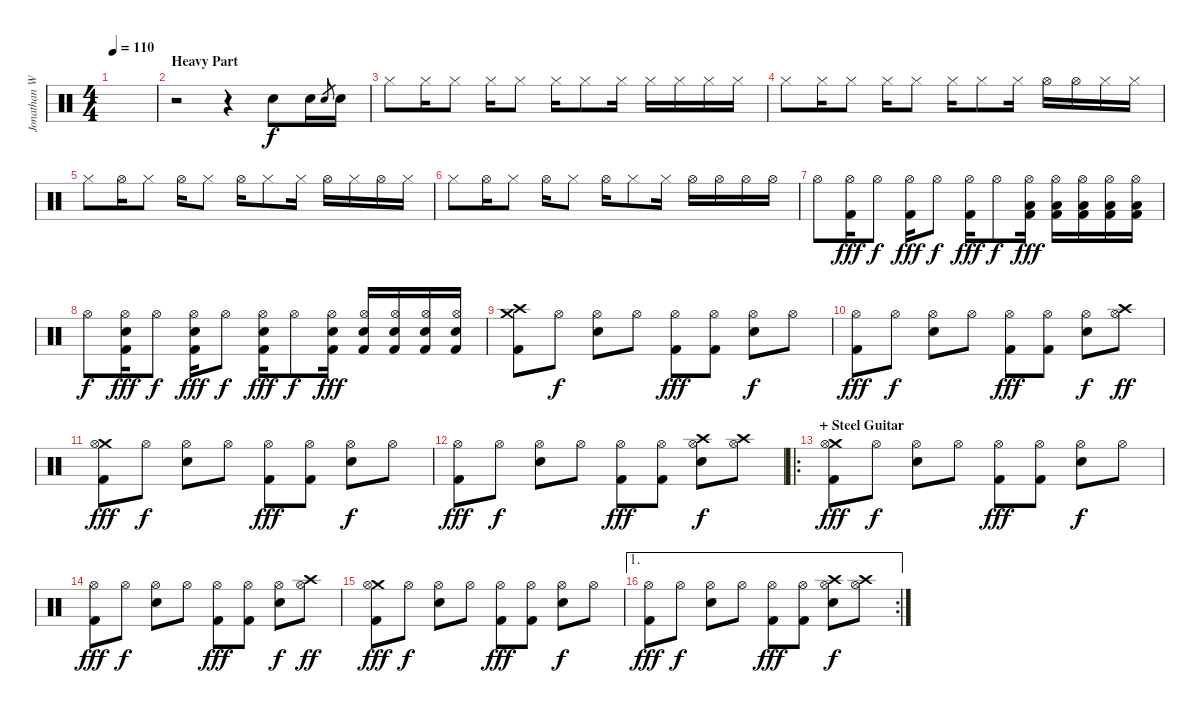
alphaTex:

\track ("Jonathan Wenzel" "Jonathan W") {instrument percussion}
\staff {score}
\articulation defaults
\ts (4 4)
\tempo 110
\clef neutral
\ks c
|
\section ("" "Heavy Part")
r.2 r.4 "Electric Snare (hit)".8 "Electric Snare (hit)".16 "Electric Snare (hit)".8{gr} "Electric Snare (hit)".16 |
"Hi-Hat (closed)".8 "Hi-Hat (closed)".16 "Hi-Hat (closed)".8 "Hi-Hat (closed)".16 "Hi-Hat (closed)".8 "Hi-Hat (closed)".16 "Hi-Hat (closed)".8 "Hi-Hat (closed)".16 "Hi-Hat (closed)".16 "Hi-Hat (closed)".16 "Hi-Hat (closed)".16 "Hi-Hat (closed)".16 |
"Hi-Hat (closed)".8 "Hi-Hat (closed)".16 "Hi-Hat (closed)".8 "Hi-Hat (closed)".16 "Hi-Hat (closed)".8 "Hi-Hat (closed)".16 "Hi-Hat (closed)".8 "Hi-Hat (closed)".16 "Hi-Hat (open)".16 "Hi-Hat (open)".16 "Hi-Hat (closed)".16 "Hi-Hat (closed)".16 |
"Hi-Hat (closed)".8 "Hi-Hat (open)".16 "Hi-Hat (closed)".8 "Hi-Hat (open)".16 "Hi-Hat (closed)".8 "Hi-Hat (open)".16 "Hi-Hat (closed)".8 "Hi-Hat (closed)".16 "Hi-Hat (open)".16 "Hi-Hat (closed)".16 "Hi-Hat (open)".16 "Hi-Hat (closed)".16 |
"Hi-Hat (closed)".8 "Hi-Hat (open)".16 "Hi-Hat (closed)".8 "Hi-Hat (open)".16 "Hi-Hat (closed)".8 "Hi-Hat (open)".16 "Hi-Hat (closed)".8 "Hi-Hat (closed)".16 "Hi-Hat (open)".16 "Hi-Hat (open)".16 "Hi-Hat (open)".16 "Hi-Hat (open)".16 |
"Hi-Hat (open)".8 ("Hi-Hat (open)" "Kick (hit) 2").16{dy fff} "Hi-Hat (open)".8{dy f} ("Hi-Hat (open)" "Kick (hit) 2").16{dy fff} "Hi-Hat (open)".8{dy f} ("Hi-Hat (open)" "Kick (hit) 2").16{dy fff} "Hi-Hat (open)".8{dy f} ("Hi-Hat (open)" "Low Floor Tom (hit)" "Kick (hit) 2").16{dy fff} ("Hi-Hat (open)" "Low Floor Tom (hit)" "Kick (hit) 2").16 ("Hi-Hat (open)" "Low Floor Tom (hit)" "Kick (hit) 2").16 ("Hi-Hat (open)" "Low Floor Tom (hit)" "Kick (hit) 2").16 ("Hi-Hat (open)" "Low Floor Tom (hit)" "Kick (hit) 2").16 |
"Hi-Hat (open)".8{dy f} ("Hi-Hat (open)" "Electric Snare (hit)" "Kick (hit) 2").16{dy fff} "Hi-Hat (open)".8{dy f} ("Hi-Hat (open)" "Electric Snare (hit)" "Kick (hit) 2").16{dy fff} "Hi-Hat (open)".8{dy f} ("Hi-Hat (open)" "Electric Snare (hit)" "Kick (hit) 2").16{dy fff} "Hi-Hat (open)".8{dy f} ("Hi-Hat (open)" "Electric Snare (hit)" "Kick (hit) 2").16{dy fff} ("Hi-Hat (open)" "Electric Snare (hit)" "Kick (hit) 2").16 ("Hi-Hat (open)" "Electric Snare (hit)" "Kick (hit) 2").16 ("Hi-Hat (open)" "Electric Snare (hit)" "Kick (hit) 2").16 ("Hi-Hat (open)" "Electric Snare (hit)" "Kick (hit) 2").16 |
("Crash medium (hit)" "Crash high (hit)" "Kick (hit) 2").8 "Hi-Hat (open)".8{dy f} ("Hi-Hat (open)" "Electric Snare (hit)").8 "Hi-Hat (open)".8 ("Hi-Hat (open)" "Kick (hit) 2").8{dy fff} ("Hi-Hat (open)" "Kick (hit) 2").8 ("Hi-Hat (open)" "Electric Snare (hit)").8{dy f} "Hi-Hat (open)".8 |
("Hi-Hat (open)" "Kick (hit) 2").8{dy fff} "Hi-Hat (open)".8{dy f} ("Hi-Hat (open)" "Electric Snare (hit)").8 "Hi-Hat (open)".8 ("Hi-Hat (open)" "Kick (hit) 2").8{dy fff} ("Hi-Hat (open)" "Kick (hit) 2").8 ("Hi-Hat (open)" "Electric Snare (hit)").8{dy f} ("Crash high (hit)" "Hi-Hat (open)").8{dy ff} |
("Crash medium (hit)" "Hi-Hat (open)" "Kick (hit) 2").8{dy fff} "Hi-Hat (open)".8{dy f} ("Hi-Hat (open)" "Electric Snare (hit)").8 "Hi-Hat (open)".8 ("Hi-Hat (open)" "Kick (hit) 2").8{dy fff} ("Hi-Hat (open)" "Kick (hit) 2").8 ("Hi-Hat (open)" "Electric Snare (hit)").8{dy f} "Hi-Hat (open)".8 |
("Hi-Hat (open)" "Kick (hit) 2").8{dy fff} "Hi-Hat (open)".8{dy f} ("Hi-Hat (open)" "Electric Snare (hit)").8 "Hi-Hat (open)".8 ("Hi-Hat (open)" "Kick (hit) 2").8{dy fff} ("Hi-Hat (open)" "Kick (hit) 2").8 ("Crash high (hit)" "Hi-Hat (open)" "Electric Snare (hit)").8{dy f} ("Crash high (hit)" "Hi-Hat (open)").8 |
\ro
\section ("" "+ Steel Guitar")
("Crash medium (hit)" "Hi-Hat (open)" "Kick (hit) 2").8{dy fff} "Hi-Hat (open)".8{dy f} ("Hi-Hat (open)" "Electric Snare (hit)").8 "Hi-Hat (open)".8 ("Hi-Hat (open)" "Kick (hit) 2").8{dy fff} ("Hi-Hat (open)" "Kick (hit) 2").8 ("Hi-Hat (open)" "Electric Snare (hit)").8{dy f} "Hi-Hat (open)".8 |
("Hi-Hat (open)" "Kick (hit) 2").8{dy fff} "Hi-Hat (open)".8{dy f} ("Hi-Hat (open)" "Electric Snare (hit)").8 "Hi-Hat (open)".8 ("Hi-Hat (open)" "Kick (hit) 2").8{dy fff} ("Hi-Hat (open)" "Kick (hit) 2").8 ("Hi-Hat (open)" "Electric Snare (hit)").8{dy f} ("Crash high (hit)" "Hi-Hat (open)").8{dy ff} |
("Crash medium (hit)" "Hi-Hat (open)" "Kick (hit) 2").8{dy fff} "Hi-Hat (open)".8{dy f} ("Hi-Hat (open)" "Electric Snare (hit)").8 "Hi-Hat (open)".8 ("Hi-Hat (open)" "Kick (hit) 2").8{dy fff} ("Hi-Hat (open)" "Kick (hit) 2").8 ("Hi-Hat (open)" "Electric Snare (hit)").8{dy f} "Hi-Hat (open)".8 |
\ae 1
\rc 2
("Hi-Hat (open)" "Kick (hit) 2").8{dy fff} "Hi-Hat (open)".8{dy f} ("Hi-Hat (open)" "Electric Snare (hit)").8 "Hi-Hat (open)".8 ("Hi-Hat (open)" "Kick (hit) 2").8{dy fff} ("Hi-Hat (open)" "Kick (hit) 2").8 ("Crash high (hit)" "Hi-Hat (open)" "Electric Snare (hit)").8{dy f} ("Crash high (hit)" "Hi-Hat (open)").8
